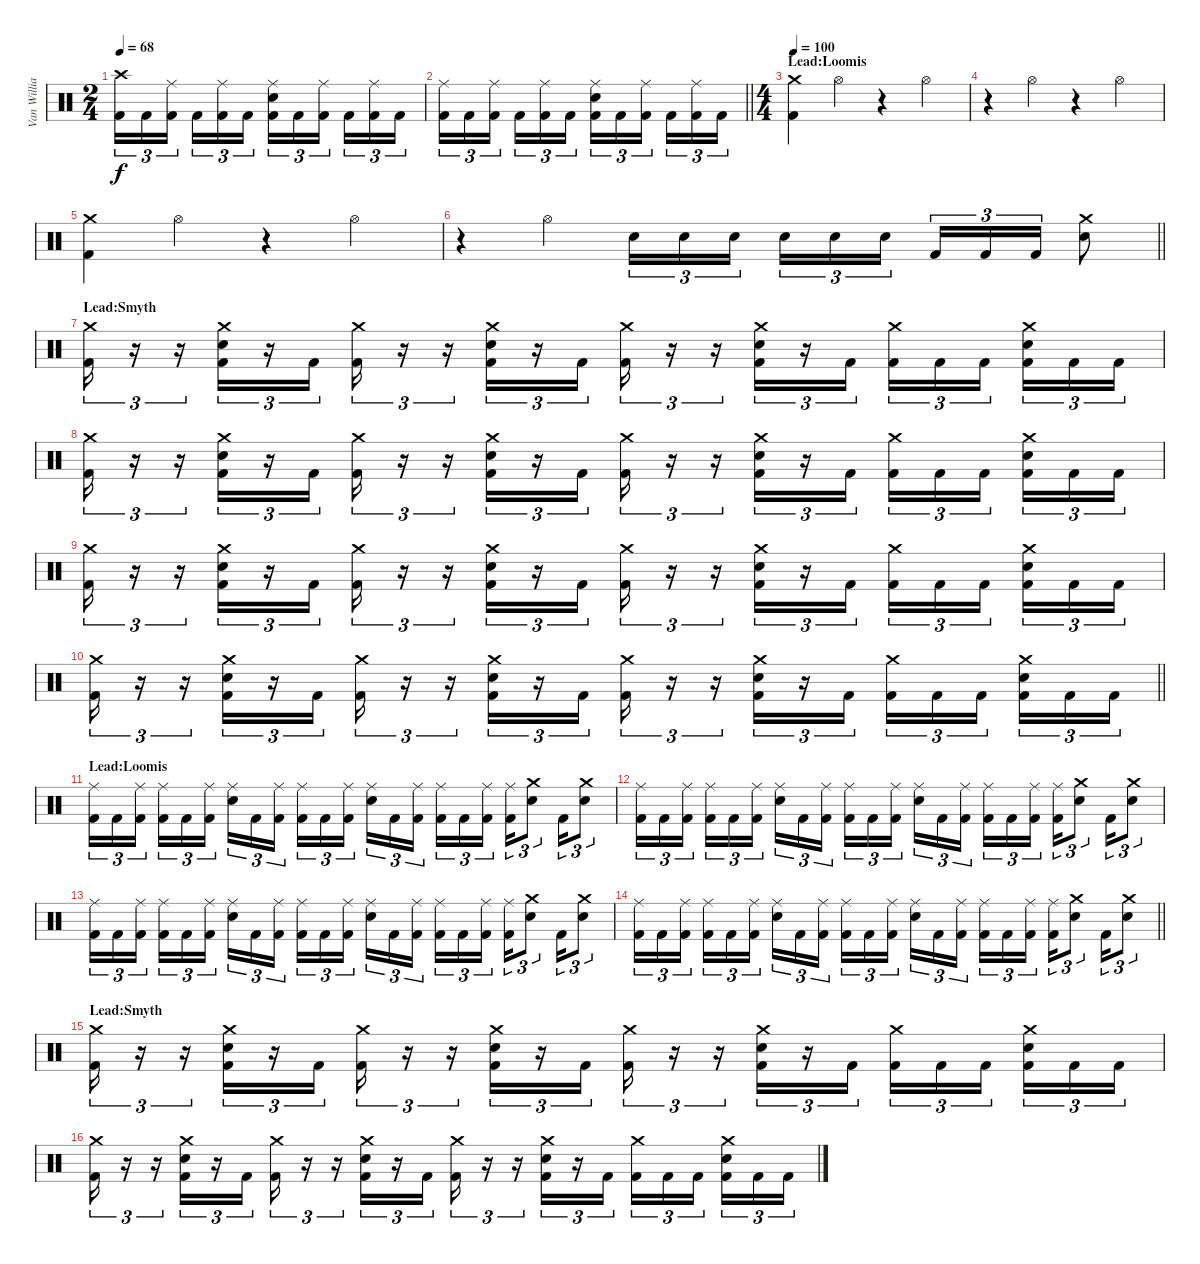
\track ("Van Williams" "Van Willia") {instrument percussion}
\staff
\articulation defaults
\ts (2 4)
\tempo 68
\clef neutral
\ks c
("Crash high (hit)" "Kick (hit) 2").16{tu (3 2) dy f} "Kick (hit) 2".16{tu (3 2)} ("Ride (middle)" "Kick (hit) 2").16{tu (3 2) beam splitsecondary} "Kick (hit) 2".16{tu (3 2)} ("Ride (middle)" "Kick (hit) 2").16{tu (3 2)} "Kick (hit) 2".16{tu (3 2)} ("Ride (middle)" "Electric Snare (hit)" "Kick (hit) 2").16{tu (3 2)} "Kick (hit) 2".16{tu (3 2)} ("Ride (middle)" "Kick (hit) 2").16{tu (3 2) beam splitsecondary} "Kick (hit) 2".16{tu (3 2)} ("Ride (middle)" "Kick (hit) 2").16{tu (3 2)} "Kick (hit) 2".16{tu (3 2)} |
\barLineRight lightlight
("Ride (middle)" "Kick (hit) 2").16{tu (3 2)} "Kick (hit) 2".16{tu (3 2)} ("Ride (middle)" "Kick (hit) 2").16{tu (3 2) beam splitsecondary} "Kick (hit) 2".16{tu (3 2)} ("Ride (middle)" "Kick (hit) 2").16{tu (3 2)} "Kick (hit) 2".16{tu (3 2)} ("Ride (middle)" "Electric Snare (hit)" "Kick (hit) 2").16{tu (3 2)} "Kick (hit) 2".16{tu (3 2)} ("Ride (middle)" "Kick (hit) 2").16{tu (3 2) beam splitsecondary} "Kick (hit) 2".16{tu (3 2)} ("Ride (middle)" "Kick (hit) 2").16{tu (3 2)} "Kick (hit) 2".16{tu (3 2)} |
\ts (4 4)
\section ("" "Lead:Loomis")
\tempo 100
("Crash medium (hit)" "Kick (hit) 2").4 "Hi-Hat (open)".4 r.4 "Hi-Hat (open)".4 |
r.4 "Hi-Hat (open)".4 r.4 "Hi-Hat (open)".4 |
("Crash medium (hit)" "Kick (hit) 2").4 "Hi-Hat (open)".4 r.4 "Hi-Hat (open)".4 |
\barLineRight lightlight
r.4 "Hi-Hat (open)".4 "Electric Snare (hit)".16{tu (3 2)} "Electric Snare (hit)".16{tu (3 2)} "Electric Snare (hit)".16{tu (3 2) beam splitsecondary} "Electric Snare (hit)".16{tu (3 2)} "Electric Snare (hit)".16{tu (3 2)} "Electric Snare (hit)".16{tu (3 2)} "Kick (hit) 2".16{tu (3 2)} "Kick (hit) 2".16{tu (3 2)} "Kick (hit) 2".16{tu (3 2)} ("Crash medium (hit)" "Electric Snare (hit)").8 |
\section ("" "Lead:Smyth")
("Crash medium (hit)" "Kick (hit) 2").16{tu (3 2)} r.16{tu (3 2)} r.16{tu (3 2)} ("Crash medium (hit)" "Electric Snare (hit)" "Kick (hit) 2").16{tu (3 2)} r.16{tu (3 2)} "Kick (hit) 2".16{tu (3 2)} ("Crash medium (hit)" "Kick (hit) 2").16{tu (3 2)} r.16{tu (3 2)} r.16{tu (3 2)} ("Crash medium (hit)" "Electric Snare (hit)" "Kick (hit) 2").16{tu (3 2)} r.16{tu (3 2)} "Kick (hit) 2".16{tu (3 2)} ("Crash medium (hit)" "Kick (hit) 2").16{tu (3 2)} r.16{tu (3 2)} r.16{tu (3 2)} ("Crash medium (hit)" "Electric Snare (hit)" "Kick (hit) 2").16{tu (3 2)} r.16{tu (3 2)} "Kick (hit) 2".16{tu (3 2)} ("Crash medium (hit)" "Kick (hit) 2").16{tu (3 2)} "Kick (hit) 2".16{tu (3 2)} "Kick (hit) 2".16{tu (3 2) beam splitsecondary} ("Crash medium (hit)" "Electric Snare (hit)" "Kick (hit) 2").16{tu (3 2)} "Kick (hit) 2".16{tu (3 2)} "Kick (hit) 2".16{tu (3 2)} |
("Crash medium (hit)" "Kick (hit) 2").16{tu (3 2)} r.16{tu (3 2)} r.16{tu (3 2)} ("Crash medium (hit)" "Electric Snare (hit)" "Kick (hit) 2").16{tu (3 2)} r.16{tu (3 2)} "Kick (hit) 2".16{tu (3 2)} ("Crash medium (hit)" "Kick (hit) 2").16{tu (3 2)} r.16{tu (3 2)} r.16{tu (3 2)} ("Crash medium (hit)" "Electric Snare (hit)" "Kick (hit) 2").16{tu (3 2)} r.16{tu (3 2)} "Kick (hit) 2".16{tu (3 2)} ("Crash medium (hit)" "Kick (hit) 2").16{tu (3 2)} r.16{tu (3 2)} r.16{tu (3 2)} ("Crash medium (hit)" "Electric Snare (hit)" "Kick (hit) 2").16{tu (3 2)} r.16{tu (3 2)} "Kick (hit) 2".16{tu (3 2)} ("Crash medium (hit)" "Kick (hit) 2").16{tu (3 2)} "Kick (hit) 2".16{tu (3 2)} "Kick (hit) 2".16{tu (3 2) beam splitsecondary} ("Crash medium (hit)" "Electric Snare (hit)" "Kick (hit) 2").16{tu (3 2)} "Kick (hit) 2".16{tu (3 2)} "Kick (hit) 2".16{tu (3 2)} |
("Crash medium (hit)" "Kick (hit) 2").16{tu (3 2)} r.16{tu (3 2)} r.16{tu (3 2)} ("Crash medium (hit)" "Electric Snare (hit)" "Kick (hit) 2").16{tu (3 2)} r.16{tu (3 2)} "Kick (hit) 2".16{tu (3 2)} ("Crash medium (hit)" "Kick (hit) 2").16{tu (3 2)} r.16{tu (3 2)} r.16{tu (3 2)} ("Crash medium (hit)" "Electric Snare (hit)" "Kick (hit) 2").16{tu (3 2)} r.16{tu (3 2)} "Kick (hit) 2".16{tu (3 2)} ("Crash medium (hit)" "Kick (hit) 2").16{tu (3 2)} r.16{tu (3 2)} r.16{tu (3 2)} ("Crash medium (hit)" "Electric Snare (hit)" "Kick (hit) 2").16{tu (3 2)} r.16{tu (3 2)} "Kick (hit) 2".16{tu (3 2)} ("Crash medium (hit)" "Kick (hit) 2").16{tu (3 2)} "Kick (hit) 2".16{tu (3 2)} "Kick (hit) 2".16{tu (3 2) beam splitsecondary} ("Crash medium (hit)" "Electric Snare (hit)" "Kick (hit) 2").16{tu (3 2)} "Kick (hit) 2".16{tu (3 2)} "Kick (hit) 2".16{tu (3 2)} |
\barLineRight lightlight
("Crash medium (hit)" "Kick (hit) 2").16{tu (3 2)} r.16{tu (3 2)} r.16{tu (3 2)} ("Crash medium (hit)" "Electric Snare (hit)" "Kick (hit) 2").16{tu (3 2)} r.16{tu (3 2)} "Kick (hit) 2".16{tu (3 2)} ("Crash medium (hit)" "Kick (hit) 2").16{tu (3 2)} r.16{tu (3 2)} r.16{tu (3 2)} ("Crash medium (hit)" "Electric Snare (hit)" "Kick (hit) 2").16{tu (3 2)} r.16{tu (3 2)} "Kick (hit) 2".16{tu (3 2)} ("Crash medium (hit)" "Kick (hit) 2").16{tu (3 2)} r.16{tu (3 2)} r.16{tu (3 2)} ("Crash medium (hit)" "Electric Snare (hit)" "Kick (hit) 2").16{tu (3 2)} r.16{tu (3 2)} "Kick (hit) 2".16{tu (3 2)} ("Crash medium (hit)" "Kick (hit) 2").16{tu (3 2)} "Kick (hit) 2".16{tu (3 2)} "Kick (hit) 2".16{tu (3 2) beam splitsecondary} ("Crash medium (hit)" "Electric Snare (hit)" "Kick (hit) 2").16{tu (3 2)} "Kick (hit) 2".16{tu (3 2)} "Kick (hit) 2".16{tu (3 2)} |
\section ("" "Lead:Loomis")
("Ride (middle)" "Kick (hit) 2").16{tu (3 2)} "Kick (hit) 2".16{tu (3 2)} ("Ride (middle)" "Kick (hit) 2").16{tu (3 2) beam splitsecondary} ("Ride (middle)" "Kick (hit) 2").16{tu (3 2)} "Kick (hit) 2".16{tu (3 2)} ("Ride (middle)" "Kick (hit) 2").16{tu (3 2)} ("Ride (middle)" "Electric Snare (hit)").16{tu (3 2)} "Kick (hit) 2".16{tu (3 2)} ("Ride (middle)" "Kick (hit) 2").16{tu (3 2) beam splitsecondary} ("Ride (middle)" "Kick (hit) 2").16{tu (3 2)} "Kick (hit) 2".16{tu (3 2)} ("Ride (middle)" "Kick (hit) 2").16{tu (3 2)} ("Ride (middle)" "Electric Snare (hit)").16{tu (3 2)} "Kick (hit) 2".16{tu (3 2)} ("Ride (middle)" "Kick (hit) 2").16{tu (3 2) beam splitsecondary} ("Ride (middle)" "Kick (hit) 2").16{tu (3 2)} "Kick (hit) 2".16{tu (3 2)} ("Ride (middle)" "Kick (hit) 2").16{tu (3 2)} ("Ride (middle)" "Kick (hit) 2").16{tu (3 2)} ("Crash medium (hit)" "Electric Snare (hit)").8{tu (3 2)} "Kick (hit) 2".16{tu (3 2)} ("Crash medium (hit)" "Electric Snare (hit)").8{tu (3 2)} |
("Ride (middle)" "Kick (hit) 2").16{tu (3 2)} "Kick (hit) 2".16{tu (3 2)} ("Ride (middle)" "Kick (hit) 2").16{tu (3 2) beam splitsecondary} ("Ride (middle)" "Kick (hit) 2").16{tu (3 2)} "Kick (hit) 2".16{tu (3 2)} ("Ride (middle)" "Kick (hit) 2").16{tu (3 2)} ("Ride (middle)" "Electric Snare (hit)").16{tu (3 2)} "Kick (hit) 2".16{tu (3 2)} ("Ride (middle)" "Kick (hit) 2").16{tu (3 2) beam splitsecondary} ("Ride (middle)" "Kick (hit) 2").16{tu (3 2)} "Kick (hit) 2".16{tu (3 2)} ("Ride (middle)" "Kick (hit) 2").16{tu (3 2)} ("Ride (middle)" "Electric Snare (hit)").16{tu (3 2)} "Kick (hit) 2".16{tu (3 2)} ("Ride (middle)" "Kick (hit) 2").16{tu (3 2) beam splitsecondary} ("Ride (middle)" "Kick (hit) 2").16{tu (3 2)} "Kick (hit) 2".16{tu (3 2)} ("Ride (middle)" "Kick (hit) 2").16{tu (3 2)} ("Ride (middle)" "Kick (hit) 2").16{tu (3 2)} ("Crash medium (hit)" "Electric Snare (hit)").8{tu (3 2)} "Kick (hit) 2".16{tu (3 2)} ("Crash medium (hit)" "Electric Snare (hit)").8{tu (3 2)} |
("Ride (middle)" "Kick (hit) 2").16{tu (3 2)} "Kick (hit) 2".16{tu (3 2)} ("Ride (middle)" "Kick (hit) 2").16{tu (3 2) beam splitsecondary} ("Ride (middle)" "Kick (hit) 2").16{tu (3 2)} "Kick (hit) 2".16{tu (3 2)} ("Ride (middle)" "Kick (hit) 2").16{tu (3 2)} ("Ride (middle)" "Electric Snare (hit)").16{tu (3 2)} "Kick (hit) 2".16{tu (3 2)} ("Ride (middle)" "Kick (hit) 2").16{tu (3 2) beam splitsecondary} ("Ride (middle)" "Kick (hit) 2").16{tu (3 2)} "Kick (hit) 2".16{tu (3 2)} ("Ride (middle)" "Kick (hit) 2").16{tu (3 2)} ("Ride (middle)" "Electric Snare (hit)").16{tu (3 2)} "Kick (hit) 2".16{tu (3 2)} ("Ride (middle)" "Kick (hit) 2").16{tu (3 2) beam splitsecondary} ("Ride (middle)" "Kick (hit) 2").16{tu (3 2)} "Kick (hit) 2".16{tu (3 2)} ("Ride (middle)" "Kick (hit) 2").16{tu (3 2)} ("Ride (middle)" "Kick (hit) 2").16{tu (3 2)} ("Crash medium (hit)" "Electric Snare (hit)").8{tu (3 2)} "Kick (hit) 2".16{tu (3 2)} ("Crash medium (hit)" "Electric Snare (hit)").8{tu (3 2)} |
\barLineRight lightlight
("Ride (middle)" "Kick (hit) 2").16{tu (3 2)} "Kick (hit) 2".16{tu (3 2)} ("Ride (middle)" "Kick (hit) 2").16{tu (3 2) beam splitsecondary} ("Ride (middle)" "Kick (hit) 2").16{tu (3 2)} "Kick (hit) 2".16{tu (3 2)} ("Ride (middle)" "Kick (hit) 2").16{tu (3 2)} ("Ride (middle)" "Electric Snare (hit)").16{tu (3 2)} "Kick (hit) 2".16{tu (3 2)} ("Ride (middle)" "Kick (hit) 2").16{tu (3 2) beam splitsecondary} ("Ride (middle)" "Kick (hit) 2").16{tu (3 2)} "Kick (hit) 2".16{tu (3 2)} ("Ride (middle)" "Kick (hit) 2").16{tu (3 2)} ("Ride (middle)" "Electric Snare (hit)").16{tu (3 2)} "Kick (hit) 2".16{tu (3 2)} ("Ride (middle)" "Kick (hit) 2").16{tu (3 2) beam splitsecondary} ("Ride (middle)" "Kick (hit) 2").16{tu (3 2)} "Kick (hit) 2".16{tu (3 2)} ("Ride (middle)" "Kick (hit) 2").16{tu (3 2)} ("Ride (middle)" "Kick (hit) 2").16{tu (3 2)} ("Crash medium (hit)" "Electric Snare (hit)").8{tu (3 2)} "Kick (hit) 2".16{tu (3 2)} ("Crash medium (hit)" "Electric Snare (hit)").8{tu (3 2)} |
\section ("" "Lead:Smyth")
("Crash medium (hit)" "Kick (hit) 2").16{tu (3 2)} r.16{tu (3 2)} r.16{tu (3 2)} ("Crash medium (hit)" "Electric Snare (hit)" "Kick (hit) 2").16{tu (3 2)} r.16{tu (3 2)} "Kick (hit) 2".16{tu (3 2)} ("Crash medium (hit)" "Kick (hit) 2").16{tu (3 2)} r.16{tu (3 2)} r.16{tu (3 2)} ("Crash medium (hit)" "Electric Snare (hit)" "Kick (hit) 2").16{tu (3 2)} r.16{tu (3 2)} "Kick (hit) 2".16{tu (3 2)} ("Crash medium (hit)" "Kick (hit) 2").16{tu (3 2)} r.16{tu (3 2)} r.16{tu (3 2)} ("Crash medium (hit)" "Electric Snare (hit)" "Kick (hit) 2").16{tu (3 2)} r.16{tu (3 2)} "Kick (hit) 2".16{tu (3 2)} ("Crash medium (hit)" "Kick (hit) 2").16{tu (3 2)} "Kick (hit) 2".16{tu (3 2)} "Kick (hit) 2".16{tu (3 2) beam splitsecondary} ("Crash medium (hit)" "Electric Snare (hit)" "Kick (hit) 2").16{tu (3 2)} "Kick (hit) 2".16{tu (3 2)} "Kick (hit) 2".16{tu (3 2)} |
("Crash medium (hit)" "Kick (hit) 2").16{tu (3 2)} r.16{tu (3 2)} r.16{tu (3 2)} ("Crash medium (hit)" "Electric Snare (hit)" "Kick (hit) 2").16{tu (3 2)} r.16{tu (3 2)} "Kick (hit) 2".16{tu (3 2)} ("Crash medium (hit)" "Kick (hit) 2").16{tu (3 2)} r.16{tu (3 2)} r.16{tu (3 2)} ("Crash medium (hit)" "Electric Snare (hit)" "Kick (hit) 2").16{tu (3 2)} r.16{tu (3 2)} "Kick (hit) 2".16{tu (3 2)} ("Crash medium (hit)" "Kick (hit) 2").16{tu (3 2)} r.16{tu (3 2)} r.16{tu (3 2)} ("Crash medium (hit)" "Electric Snare (hit)" "Kick (hit) 2").16{tu (3 2)} r.16{tu (3 2)} "Kick (hit) 2".16{tu (3 2)} ("Crash medium (hit)" "Kick (hit) 2").16{tu (3 2)} "Kick (hit) 2".16{tu (3 2)} "Kick (hit) 2".16{tu (3 2) beam splitsecondary} ("Crash medium (hit)" "Electric Snare (hit)" "Kick (hit) 2").16{tu (3 2)} "Kick (hit) 2".16{tu (3 2)} "Kick (hit) 2".16{tu (3 2)}
